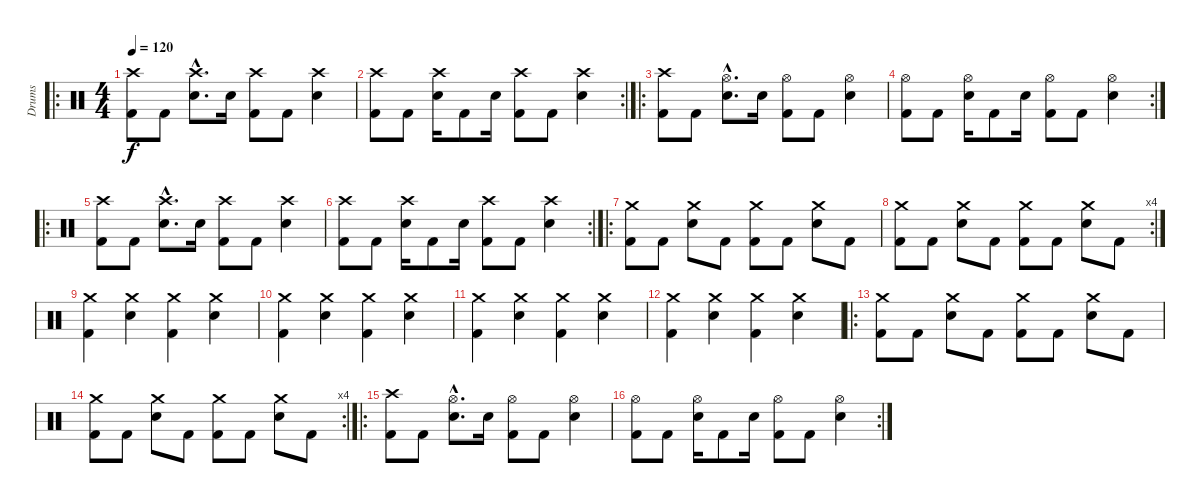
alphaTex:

\track ("Drums" "Drums") {instrument percussion}
\staff {score}
\articulation defaults
\ro
\ts (4 4)
\tempo 120
\clef neutral
\ks c
("Kick (hit) 2" "Crash high (hit)").8{dy f} "Kick (hit) 2".8 ("Electric Snare (hit)"{hac} "Crash high (hit)"{hac}).8{d} "Electric Snare (hit)".16 ("Kick (hit) 2" "Crash high (hit)").8 "Kick (hit) 2".8 ("Electric Snare (hit)" "Crash high (hit)").4 |
\rc 2
("Kick (hit) 2" "Crash high (hit)").8 "Kick (hit) 2".8 ("Electric Snare (hit)" "Crash high (hit)").16 "Kick (hit) 2".8 "Electric Snare (hit)".16 ("Kick (hit) 2" "Crash high (hit)").8 "Kick (hit) 2".8 ("Electric Snare (hit)" "Crash high (hit)").4 |
\ro
("Kick (hit) 2" "Crash high (hit)").8 "Kick (hit) 2".8 ("Electric Snare (hit)"{hac} "Hi-Hat (open)"{hac}).8{d} "Electric Snare (hit)".16 ("Kick (hit) 2" "Hi-Hat (open)").8 "Kick (hit) 2".8 ("Electric Snare (hit)" "Hi-Hat (open)").4 |
\rc 2
("Kick (hit) 2" "Hi-Hat (open)").8 "Kick (hit) 2".8 ("Electric Snare (hit)" "Hi-Hat (open)").16 "Kick (hit) 2".8 "Electric Snare (hit)".16 ("Kick (hit) 2" "Hi-Hat (open)").8 "Kick (hit) 2".8 ("Electric Snare (hit)" "Hi-Hat (open)").4 |
\ro
("Kick (hit) 2" "Crash high (hit)").8 "Kick (hit) 2".8 ("Electric Snare (hit)"{hac} "Crash high (hit)"{hac}).8{d} "Electric Snare (hit)".16 ("Kick (hit) 2" "Crash high (hit)").8 "Kick (hit) 2".8 ("Electric Snare (hit)" "Crash high (hit)").4 |
\rc 2
("Kick (hit) 2" "Crash high (hit)").8 "Kick (hit) 2".8 ("Electric Snare (hit)" "Crash high (hit)").16 "Kick (hit) 2".8 "Electric Snare (hit)".16 ("Kick (hit) 2" "Crash high (hit)").8 "Kick (hit) 2".8 ("Electric Snare (hit)" "Crash high (hit)").4 |
\ro
("Crash medium (hit)" "Kick (hit) 2").8 "Kick (hit) 2".8 ("Crash medium (hit)" "Electric Snare (hit)").8 "Kick (hit) 2".8 ("Crash medium (hit)" "Kick (hit) 2").8 "Kick (hit) 2".8 ("Crash medium (hit)" "Electric Snare (hit)").8 "Kick (hit) 2".8 |
\rc 4
("Crash medium (hit)" "Kick (hit) 2").8 "Kick (hit) 2".8 ("Crash medium (hit)" "Electric Snare (hit)").8 "Kick (hit) 2".8 ("Crash medium (hit)" "Kick (hit) 2").8 "Kick (hit) 2".8 ("Crash medium (hit)" "Electric Snare (hit)").8 "Kick (hit) 2".8 |
("Crash medium (hit)" "Kick (hit) 2").4 ("Crash medium (hit)" "Electric Snare (hit)").4 ("Crash medium (hit)" "Kick (hit) 2").4 ("Crash medium (hit)" "Electric Snare (hit)").4 |
("Crash medium (hit)" "Kick (hit) 2").4 ("Crash medium (hit)" "Electric Snare (hit)").4 ("Crash medium (hit)" "Kick (hit) 2").4 ("Crash medium (hit)" "Electric Snare (hit)").4 |
("Crash medium (hit)" "Kick (hit) 2").4 ("Crash medium (hit)" "Electric Snare (hit)").4 ("Crash medium (hit)" "Kick (hit) 2").4 ("Crash medium (hit)" "Electric Snare (hit)").4 |
("Crash medium (hit)" "Kick (hit) 2").4 ("Crash medium (hit)" "Electric Snare (hit)").4 ("Crash medium (hit)" "Kick (hit) 2").4 ("Crash medium (hit)" "Electric Snare (hit)").4 |
\ro
("Crash medium (hit)" "Kick (hit) 2").8 "Kick (hit) 2".8 ("Crash medium (hit)" "Electric Snare (hit)").8 "Kick (hit) 2".8 ("Crash medium (hit)" "Kick (hit) 2").8 "Kick (hit) 2".8 ("Crash medium (hit)" "Electric Snare (hit)").8 "Kick (hit) 2".8 |
\rc 4
("Crash medium (hit)" "Kick (hit) 2").8 "Kick (hit) 2".8 ("Crash medium (hit)" "Electric Snare (hit)").8 "Kick (hit) 2".8 ("Crash medium (hit)" "Kick (hit) 2").8 "Kick (hit) 2".8 ("Crash medium (hit)" "Electric Snare (hit)").8 "Kick (hit) 2".8 |
\ro
("Kick (hit) 2" "Crash high (hit)").8 "Kick (hit) 2".8 ("Electric Snare (hit)"{hac} "Hi-Hat (open)"{hac}).8{d} "Electric Snare (hit)".16 ("Kick (hit) 2" "Hi-Hat (open)").8 "Kick (hit) 2".8 ("Electric Snare (hit)" "Hi-Hat (open)").4 |
\rc 2
("Kick (hit) 2" "Hi-Hat (open)").8 "Kick (hit) 2".8 ("Electric Snare (hit)" "Hi-Hat (open)").16 "Kick (hit) 2".8 "Electric Snare (hit)".16 ("Kick (hit) 2" "Hi-Hat (open)").8 "Kick (hit) 2".8 ("Electric Snare (hit)" "Hi-Hat (open)").4
